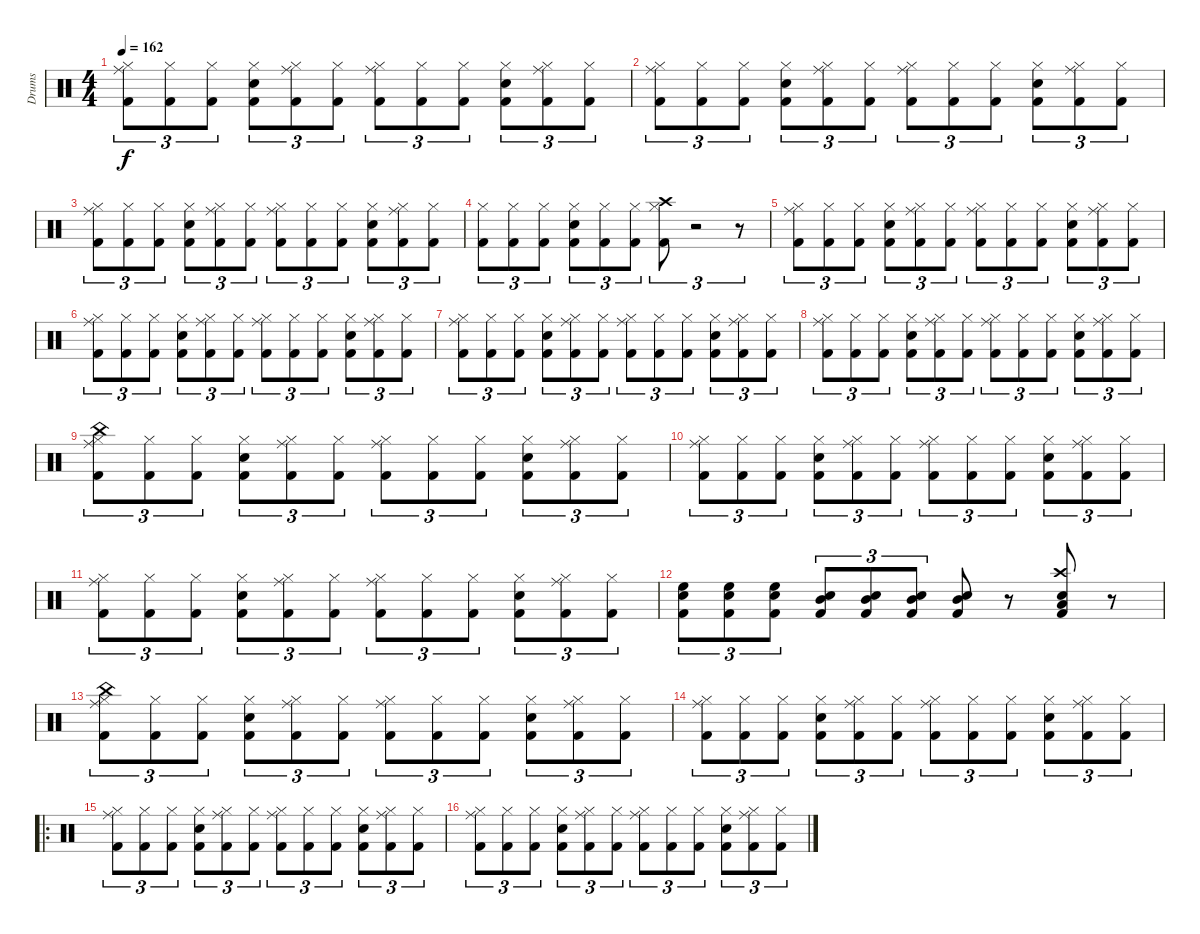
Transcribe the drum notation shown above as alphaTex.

\track ("Drums" "Drums") {instrument percussion}
\staff {score}
\articulation defaults
\ts (4 4)
\tempo 162
\clef neutral
\ks c
("Kick (hit) 2" "Ride (middle)" "Hi-Hat (closed)").8{tu (3 2) dy f} ("Kick (hit) 2" "Hi-Hat (closed)").8{tu (3 2)} ("Kick (hit) 2" "Hi-Hat (closed)").8{tu (3 2)} ("Kick (hit) 2" "Snare (hit) 2" "Hi-Hat (closed)").8{tu (3 2)} ("Kick (hit) 2" "Ride (middle)" "Hi-Hat (closed)").8{tu (3 2)} ("Kick (hit) 2" "Hi-Hat (closed)").8{tu (3 2)} ("Kick (hit) 2" "Ride (middle)" "Hi-Hat (closed)").8{tu (3 2)} ("Kick (hit) 2" "Hi-Hat (closed)").8{tu (3 2)} ("Kick (hit) 2" "Hi-Hat (closed)").8{tu (3 2)} ("Kick (hit) 2" "Snare (hit) 2" "Hi-Hat (closed)").8{tu (3 2)} ("Kick (hit) 2" "Ride (middle)" "Hi-Hat (closed)").8{tu (3 2)} ("Kick (hit) 2" "Hi-Hat (closed)").8{tu (3 2)} |
("Kick (hit) 2" "Ride (middle)" "Hi-Hat (closed)").8{tu (3 2)} ("Kick (hit) 2" "Hi-Hat (closed)").8{tu (3 2)} ("Kick (hit) 2" "Hi-Hat (closed)").8{tu (3 2)} ("Kick (hit) 2" "Snare (hit) 2" "Hi-Hat (closed)").8{tu (3 2)} ("Kick (hit) 2" "Ride (middle)" "Hi-Hat (closed)").8{tu (3 2)} ("Kick (hit) 2" "Hi-Hat (closed)").8{tu (3 2)} ("Kick (hit) 2" "Ride (middle)" "Hi-Hat (closed)").8{tu (3 2)} ("Kick (hit) 2" "Hi-Hat (closed)").8{tu (3 2)} ("Kick (hit) 2" "Hi-Hat (closed)").8{tu (3 2)} ("Kick (hit) 2" "Snare (hit) 2" "Hi-Hat (closed)").8{tu (3 2)} ("Kick (hit) 2" "Ride (middle)" "Hi-Hat (closed)").8{tu (3 2)} ("Kick (hit) 2" "Hi-Hat (closed)").8{tu (3 2)} |
("Kick (hit) 2" "Ride (middle)" "Hi-Hat (closed)").8{tu (3 2)} ("Kick (hit) 2" "Hi-Hat (closed)").8{tu (3 2)} ("Kick (hit) 2" "Hi-Hat (closed)").8{tu (3 2)} ("Kick (hit) 2" "Snare (hit) 2" "Hi-Hat (closed)").8{tu (3 2)} ("Kick (hit) 2" "Ride (middle)" "Hi-Hat (closed)").8{tu (3 2)} ("Kick (hit) 2" "Hi-Hat (closed)").8{tu (3 2)} ("Kick (hit) 2" "Ride (middle)" "Hi-Hat (closed)").8{tu (3 2)} ("Kick (hit) 2" "Hi-Hat (closed)").8{tu (3 2)} ("Kick (hit) 2" "Hi-Hat (closed)").8{tu (3 2)} ("Kick (hit) 2" "Snare (hit) 2" "Hi-Hat (closed)").8{tu (3 2)} ("Kick (hit) 2" "Ride (middle)" "Hi-Hat (closed)").8{tu (3 2)} ("Kick (hit) 2" "Hi-Hat (closed)").8{tu (3 2)} |
("Kick (hit) 2" "Hi-Hat (closed)").8{tu (3 2)} ("Kick (hit) 2" "Hi-Hat (closed)").8{tu (3 2)} ("Kick (hit) 2" "Hi-Hat (closed)").8{tu (3 2)} ("Kick (hit) 2" "Electric Snare (hit)" "Hi-Hat (closed)").8{tu (3 2)} ("Kick (hit) 2" "Hi-Hat (closed)").8{tu (3 2)} ("Kick (hit) 2" "Hi-Hat (closed)").8{tu (3 2)} ("Kick (hit) 2" "Crash high (hit)" "Hi-Hat (closed)").8{tu (3 2)} r.2{tu (3 2)} r.8{tu (3 2)} |
("Kick (hit) 2" "Ride (middle)" "Hi-Hat (closed)").8{tu (3 2)} ("Kick (hit) 2" "Hi-Hat (closed)").8{tu (3 2)} ("Kick (hit) 2" "Hi-Hat (closed)").8{tu (3 2)} ("Kick (hit) 2" "Electric Snare (hit)" "Hi-Hat (closed)").8{tu (3 2)} ("Kick (hit) 2" "Ride (middle)" "Hi-Hat (closed)").8{tu (3 2)} ("Kick (hit) 2" "Hi-Hat (closed)").8{tu (3 2)} ("Kick (hit) 2" "Ride (middle)" "Hi-Hat (closed)").8{tu (3 2)} ("Kick (hit) 2" "Hi-Hat (closed)").8{tu (3 2)} ("Kick (hit) 2" "Hi-Hat (closed)").8{tu (3 2)} ("Kick (hit) 2" "Electric Snare (hit)" "Hi-Hat (closed)").8{tu (3 2)} ("Kick (hit) 2" "Ride (middle)" "Hi-Hat (closed)").8{tu (3 2)} ("Kick (hit) 2" "Hi-Hat (closed)").8{tu (3 2)} |
("Kick (hit) 2" "Ride (middle)" "Hi-Hat (closed)").8{tu (3 2)} ("Kick (hit) 2" "Hi-Hat (closed)").8{tu (3 2)} ("Kick (hit) 2" "Hi-Hat (closed)").8{tu (3 2)} ("Kick (hit) 2" "Electric Snare (hit)" "Hi-Hat (closed)").8{tu (3 2)} ("Kick (hit) 2" "Ride (middle)" "Hi-Hat (closed)").8{tu (3 2)} ("Kick (hit) 2" "Hi-Hat (closed)").8{tu (3 2)} ("Kick (hit) 2" "Ride (middle)" "Hi-Hat (closed)").8{tu (3 2)} ("Kick (hit) 2" "Hi-Hat (closed)").8{tu (3 2)} ("Kick (hit) 2" "Hi-Hat (closed)").8{tu (3 2)} ("Kick (hit) 2" "Electric Snare (hit)" "Hi-Hat (closed)").8{tu (3 2)} ("Kick (hit) 2" "Ride (middle)" "Hi-Hat (closed)").8{tu (3 2)} ("Kick (hit) 2" "Hi-Hat (closed)").8{tu (3 2)} |
("Kick (hit) 2" "Ride (middle)" "Hi-Hat (closed)").8{tu (3 2)} ("Kick (hit) 2" "Hi-Hat (closed)").8{tu (3 2)} ("Kick (hit) 2" "Hi-Hat (closed)").8{tu (3 2)} ("Kick (hit) 2" "Electric Snare (hit)" "Hi-Hat (closed)").8{tu (3 2)} ("Kick (hit) 2" "Ride (middle)" "Hi-Hat (closed)").8{tu (3 2)} ("Kick (hit) 2" "Hi-Hat (closed)").8{tu (3 2)} ("Kick (hit) 2" "Ride (middle)" "Hi-Hat (closed)").8{tu (3 2)} ("Kick (hit) 2" "Hi-Hat (closed)").8{tu (3 2)} ("Kick (hit) 2" "Hi-Hat (closed)").8{tu (3 2)} ("Kick (hit) 2" "Electric Snare (hit)" "Hi-Hat (closed)").8{tu (3 2)} ("Kick (hit) 2" "Ride (middle)" "Hi-Hat (closed)").8{tu (3 2)} ("Kick (hit) 2" "Hi-Hat (closed)").8{tu (3 2)} |
("Kick (hit) 2" "Ride (middle)" "Hi-Hat (closed)").8{tu (3 2)} ("Kick (hit) 2" "Hi-Hat (closed)").8{tu (3 2)} ("Kick (hit) 2" "Hi-Hat (closed)").8{tu (3 2)} ("Kick (hit) 2" "Electric Snare (hit)" "Hi-Hat (closed)").8{tu (3 2)} ("Kick (hit) 2" "Ride (middle)" "Hi-Hat (closed)").8{tu (3 2)} ("Kick (hit) 2" "Hi-Hat (closed)").8{tu (3 2)} ("Kick (hit) 2" "Ride (middle)" "Hi-Hat (closed)").8{tu (3 2)} ("Kick (hit) 2" "Hi-Hat (closed)").8{tu (3 2)} ("Kick (hit) 2" "Hi-Hat (closed)").8{tu (3 2)} ("Kick (hit) 2" "Electric Snare (hit)" "Hi-Hat (closed)").8{tu (3 2)} ("Kick (hit) 2" "Ride (middle)" "Hi-Hat (closed)").8{tu (3 2)} ("Kick (hit) 2" "Hi-Hat (closed)").8{tu (3 2)} |
("Kick (hit) 2" "Ride (middle)" "China (hit)" "Hi-Hat (closed)").8{tu (3 2)} ("Kick (hit) 2" "Hi-Hat (closed)").8{tu (3 2)} ("Kick (hit) 2" "Hi-Hat (closed)").8{tu (3 2)} ("Kick (hit) 2" "Electric Snare (hit)" "Hi-Hat (closed)").8{tu (3 2)} ("Kick (hit) 2" "Ride (middle)" "Hi-Hat (closed)").8{tu (3 2)} ("Kick (hit) 2" "Hi-Hat (closed)").8{tu (3 2)} ("Kick (hit) 2" "Ride (middle)" "Hi-Hat (closed)").8{tu (3 2)} ("Kick (hit) 2" "Hi-Hat (closed)").8{tu (3 2)} ("Kick (hit) 2" "Hi-Hat (closed)").8{tu (3 2)} ("Kick (hit) 2" "Electric Snare (hit)" "Hi-Hat (closed)").8{tu (3 2)} ("Kick (hit) 2" "Ride (middle)" "Hi-Hat (closed)").8{tu (3 2)} ("Kick (hit) 2" "Hi-Hat (closed)").8{tu (3 2)} |
("Kick (hit) 2" "Ride (middle)" "Hi-Hat (closed)").8{tu (3 2)} ("Kick (hit) 2" "Hi-Hat (closed)").8{tu (3 2)} ("Kick (hit) 2" "Hi-Hat (closed)").8{tu (3 2)} ("Kick (hit) 2" "Electric Snare (hit)" "Hi-Hat (closed)").8{tu (3 2)} ("Kick (hit) 2" "Ride (middle)" "Hi-Hat (closed)").8{tu (3 2)} ("Kick (hit) 2" "Hi-Hat (closed)").8{tu (3 2)} ("Kick (hit) 2" "Ride (middle)" "Hi-Hat (closed)").8{tu (3 2)} ("Kick (hit) 2" "Hi-Hat (closed)").8{tu (3 2)} ("Kick (hit) 2" "Hi-Hat (closed)").8{tu (3 2)} ("Kick (hit) 2" "Electric Snare (hit)" "Hi-Hat (closed)").8{tu (3 2)} ("Kick (hit) 2" "Ride (middle)" "Hi-Hat (closed)").8{tu (3 2)} ("Kick (hit) 2" "Hi-Hat (closed)").8{tu (3 2)} |
("Kick (hit) 2" "Ride (middle)" "Hi-Hat (closed)").8{tu (3 2)} ("Kick (hit) 2" "Hi-Hat (closed)").8{tu (3 2)} ("Kick (hit) 2" "Hi-Hat (closed)").8{tu (3 2)} ("Kick (hit) 2" "Electric Snare (hit)" "Hi-Hat (closed)").8{tu (3 2)} ("Kick (hit) 2" "Ride (middle)" "Hi-Hat (closed)").8{tu (3 2)} ("Kick (hit) 2" "Hi-Hat (closed)").8{tu (3 2)} ("Kick (hit) 2" "Ride (middle)" "Hi-Hat (closed)").8{tu (3 2)} ("Kick (hit) 2" "Hi-Hat (closed)").8{tu (3 2)} ("Kick (hit) 2" "Hi-Hat (closed)").8{tu (3 2)} ("Kick (hit) 2" "Electric Snare (hit)" "Hi-Hat (closed)").8{tu (3 2)} ("Kick (hit) 2" "Ride (middle)" "Hi-Hat (closed)").8{tu (3 2)} ("Kick (hit) 2" "Hi-Hat (closed)").8{tu (3 2)} |
("Kick (hit) 2" "Electric Snare (hit)" "High Floor Tom (hit)").8{tu (3 2)} ("Kick (hit) 2" "Electric Snare (hit)" "High Floor Tom (hit)").8{tu (3 2)} ("Kick (hit) 2" "Electric Snare (hit)" "High Floor Tom (hit)").8{tu (3 2)} ("Kick (hit) 2" "Electric Snare (hit)" "Mid Tom (hit)").8{tu (3 2)} ("Kick (hit) 2" "Electric Snare (hit)" "Mid Tom (hit)").8{tu (3 2)} ("Kick (hit) 2" "Electric Snare (hit)" "Mid Tom (hit)").8{tu (3 2)} ("Kick (hit) 2" "Electric Snare (hit)" "Mid Tom (hit)").8 r.8 ("Kick (hit) 2" "Electric Snare (hit)" "Low Tom (hit)" "Crash high (hit)").8 r.8 |
("Kick (hit) 2" "Ride (middle)" "China (hit)" "Hi-Hat (closed)").8{tu (3 2)} ("Kick (hit) 2" "Hi-Hat (closed)").8{tu (3 2)} ("Kick (hit) 2" "Hi-Hat (closed)").8{tu (3 2)} ("Kick (hit) 2" "Electric Snare (hit)" "Hi-Hat (closed)").8{tu (3 2)} ("Kick (hit) 2" "Ride (middle)" "Hi-Hat (closed)").8{tu (3 2)} ("Kick (hit) 2" "Hi-Hat (closed)").8{tu (3 2)} ("Kick (hit) 2" "Ride (middle)" "Hi-Hat (closed)").8{tu (3 2)} ("Kick (hit) 2" "Hi-Hat (closed)").8{tu (3 2)} ("Kick (hit) 2" "Hi-Hat (closed)").8{tu (3 2)} ("Kick (hit) 2" "Electric Snare (hit)" "Hi-Hat (closed)").8{tu (3 2)} ("Kick (hit) 2" "Ride (middle)" "Hi-Hat (closed)").8{tu (3 2)} ("Kick (hit) 2" "Hi-Hat (closed)").8{tu (3 2)} |
("Kick (hit) 2" "Ride (middle)" "Hi-Hat (closed)").8{tu (3 2)} ("Kick (hit) 2" "Hi-Hat (closed)").8{tu (3 2)} ("Kick (hit) 2" "Hi-Hat (closed)").8{tu (3 2)} ("Kick (hit) 2" "Electric Snare (hit)" "Hi-Hat (closed)").8{tu (3 2)} ("Kick (hit) 2" "Ride (middle)" "Hi-Hat (closed)").8{tu (3 2)} ("Kick (hit) 2" "Hi-Hat (closed)").8{tu (3 2)} ("Kick (hit) 2" "Ride (middle)" "Hi-Hat (closed)").8{tu (3 2)} ("Kick (hit) 2" "Hi-Hat (closed)").8{tu (3 2)} ("Kick (hit) 2" "Hi-Hat (closed)").8{tu (3 2)} ("Kick (hit) 2" "Electric Snare (hit)" "Hi-Hat (closed)").8{tu (3 2)} ("Kick (hit) 2" "Ride (middle)" "Hi-Hat (closed)").8{tu (3 2)} ("Kick (hit) 2" "Hi-Hat (closed)").8{tu (3 2)} |
\ro
("Kick (hit) 2" "Ride (middle)" "Hi-Hat (closed)").8{tu (3 2)} ("Kick (hit) 2" "Hi-Hat (closed)").8{tu (3 2)} ("Kick (hit) 2" "Hi-Hat (closed)").8{tu (3 2)} ("Kick (hit) 2" "Electric Snare (hit)" "Hi-Hat (closed)").8{tu (3 2)} ("Kick (hit) 2" "Ride (middle)" "Hi-Hat (closed)").8{tu (3 2)} ("Kick (hit) 2" "Hi-Hat (closed)").8{tu (3 2)} ("Kick (hit) 2" "Ride (middle)" "Hi-Hat (closed)").8{tu (3 2)} ("Kick (hit) 2" "Hi-Hat (closed)").8{tu (3 2)} ("Kick (hit) 2" "Hi-Hat (closed)").8{tu (3 2)} ("Kick (hit) 2" "Electric Snare (hit)" "Hi-Hat (closed)").8{tu (3 2)} ("Kick (hit) 2" "Ride (middle)" "Hi-Hat (closed)").8{tu (3 2)} ("Kick (hit) 2" "Hi-Hat (closed)").8{tu (3 2)} |
("Kick (hit) 2" "Ride (middle)" "Hi-Hat (closed)").8{tu (3 2)} ("Kick (hit) 2" "Hi-Hat (closed)").8{tu (3 2)} ("Kick (hit) 2" "Hi-Hat (closed)").8{tu (3 2)} ("Kick (hit) 2" "Electric Snare (hit)" "Hi-Hat (closed)").8{tu (3 2)} ("Kick (hit) 2" "Ride (middle)" "Hi-Hat (closed)").8{tu (3 2)} ("Kick (hit) 2" "Hi-Hat (closed)").8{tu (3 2)} ("Kick (hit) 2" "Ride (middle)" "Hi-Hat (closed)").8{tu (3 2)} ("Kick (hit) 2" "Hi-Hat (closed)").8{tu (3 2)} ("Kick (hit) 2" "Hi-Hat (closed)").8{tu (3 2)} ("Kick (hit) 2" "Electric Snare (hit)" "Hi-Hat (closed)").8{tu (3 2)} ("Kick (hit) 2" "Ride (middle)" "Hi-Hat (closed)").8{tu (3 2)} ("Kick (hit) 2" "Hi-Hat (closed)").8{tu (3 2)}
